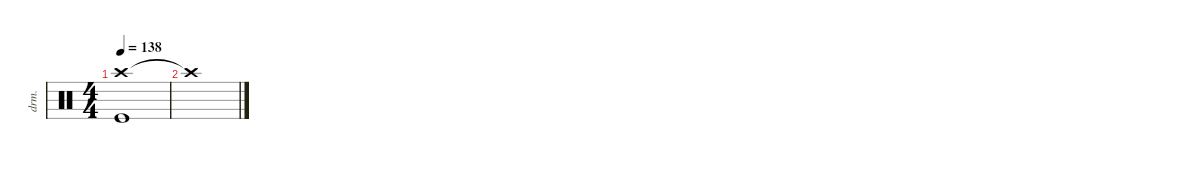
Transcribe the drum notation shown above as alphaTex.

\defaultSystemsLayout 4
\hideDynamics
\bracketExtendMode nobrackets
\track ("Percussions" "drm.") {instrument percussion}
\staff {score}
\articulation defaults
\ts (4 4)
\tempo 138
\clef neutral
\ks aminor
("Crash high (hit)" "Kick (hit)").1{dy f beam Down} |
"Crash high (hit)"{t}.1{beam Down}
